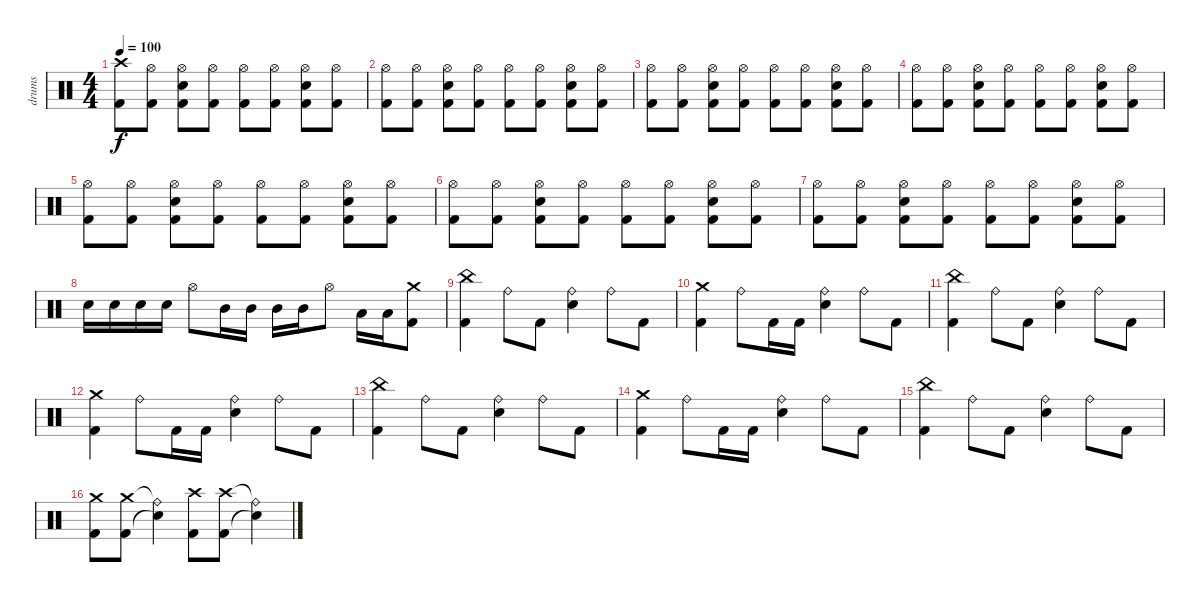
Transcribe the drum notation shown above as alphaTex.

\track ("drums" "drums") {instrument percussion}
\staff {score}
\articulation defaults
\ts (4 4)
\tempo 100
\clef neutral
\ks c
("Crash high (hit)" "Kick (hit) 2").8{dy f} ("Hi-Hat (open)" "Kick (hit) 2").8 ("Hi-Hat (open)" "Snare (hit) 2" "Kick (hit) 2").8 ("Hi-Hat (open)" "Kick (hit) 2").8 ("Hi-Hat (open)" "Kick (hit) 2").8 ("Hi-Hat (open)" "Kick (hit) 2").8 ("Hi-Hat (open)" "Snare (hit) 2" "Kick (hit) 2").8 ("Hi-Hat (open)" "Kick (hit) 2").8 |
("Hi-Hat (open)" "Kick (hit) 2").8 ("Hi-Hat (open)" "Kick (hit) 2").8 ("Hi-Hat (open)" "Snare (hit) 2" "Kick (hit) 2").8 ("Hi-Hat (open)" "Kick (hit) 2").8 ("Hi-Hat (open)" "Kick (hit) 2").8 ("Hi-Hat (open)" "Kick (hit) 2").8 ("Hi-Hat (open)" "Snare (hit) 2" "Kick (hit) 2").8 ("Hi-Hat (open)" "Kick (hit) 2").8 |
("Hi-Hat (open)" "Kick (hit) 2").8 ("Hi-Hat (open)" "Kick (hit) 2").8 ("Hi-Hat (open)" "Snare (hit) 2" "Kick (hit) 2").8 ("Hi-Hat (open)" "Kick (hit) 2").8 ("Hi-Hat (open)" "Kick (hit) 2").8 ("Hi-Hat (open)" "Kick (hit) 2").8 ("Hi-Hat (open)" "Snare (hit) 2" "Kick (hit) 2").8 ("Hi-Hat (open)" "Kick (hit) 2").8 |
("Hi-Hat (open)" "Kick (hit) 2").8 ("Hi-Hat (open)" "Kick (hit) 2").8 ("Hi-Hat (open)" "Snare (hit) 2" "Kick (hit) 2").8 ("Hi-Hat (open)" "Kick (hit) 2").8 ("Hi-Hat (open)" "Kick (hit) 2").8 ("Hi-Hat (open)" "Kick (hit) 2").8 ("Hi-Hat (open)" "Snare (hit) 2" "Kick (hit) 2").8 ("Hi-Hat (open)" "Kick (hit) 2").8 |
("Hi-Hat (open)" "Kick (hit) 2").8 ("Hi-Hat (open)" "Kick (hit) 2").8 ("Hi-Hat (open)" "Snare (hit) 2" "Kick (hit) 2").8 ("Hi-Hat (open)" "Kick (hit) 2").8 ("Hi-Hat (open)" "Kick (hit) 2").8 ("Hi-Hat (open)" "Kick (hit) 2").8 ("Hi-Hat (open)" "Snare (hit) 2" "Kick (hit) 2").8 ("Hi-Hat (open)" "Kick (hit) 2").8 |
("Hi-Hat (open)" "Kick (hit) 2").8 ("Hi-Hat (open)" "Kick (hit) 2").8 ("Hi-Hat (open)" "Snare (hit) 2" "Kick (hit) 2").8 ("Hi-Hat (open)" "Kick (hit) 2").8 ("Hi-Hat (open)" "Kick (hit) 2").8 ("Hi-Hat (open)" "Kick (hit) 2").8 ("Hi-Hat (open)" "Snare (hit) 2" "Kick (hit) 2").8 ("Hi-Hat (open)" "Kick (hit) 2").8 |
("Hi-Hat (open)" "Kick (hit) 2").8 ("Hi-Hat (open)" "Kick (hit) 2").8 ("Hi-Hat (open)" "Snare (hit) 2" "Kick (hit) 2").8 ("Hi-Hat (open)" "Kick (hit) 2").8 ("Hi-Hat (open)" "Kick (hit) 2").8 ("Hi-Hat (open)" "Kick (hit) 2").8 ("Hi-Hat (open)" "Snare (hit) 2" "Kick (hit) 2").8 ("Hi-Hat (open)" "Kick (hit) 2").8 |
"Snare (hit) 2".16 "Snare (hit) 2".16 "Snare (hit) 2".16 "Snare (hit) 2".16 "Hi-Hat (open)".8 "Mid Tom (hit)".16 "Mid Tom (hit)".16 "Mid Tom (hit)".16 "Mid Tom (hit)".16 "Hi-Hat (open)".8 "Low Tom (hit)".16 "Low Tom (hit)".16 ("Crash medium (hit)" "Kick (hit) 2").8 |
("China (hit)" "Kick (hit) 2").4 "Ride (bell)".8 "Kick (hit) 2".8 ("Ride (bell)" "Snare (hit) 2").4 "Ride (bell)".8 "Kick (hit) 2".8 |
("Crash medium (hit)" "Kick (hit) 2").4 "Ride (bell)".8 "Kick (hit) 2".16 "Kick (hit) 2".16 ("Ride (bell)" "Snare (hit) 2").4 "Ride (bell)".8 "Kick (hit) 2".8 |
("China (hit)" "Kick (hit) 2").4 "Ride (bell)".8 "Kick (hit) 2".8 ("Ride (bell)" "Snare (hit) 2").4 "Ride (bell)".8 "Kick (hit) 2".8 |
("Crash medium (hit)" "Kick (hit) 2").4 "Ride (bell)".8 "Kick (hit) 2".16 "Kick (hit) 2".16 ("Ride (bell)" "Snare (hit) 2").4 "Ride (bell)".8 "Kick (hit) 2".8 |
("China (hit)" "Kick (hit) 2").4 "Ride (bell)".8 "Kick (hit) 2".8 ("Ride (bell)" "Snare (hit) 2").4 "Ride (bell)".8 "Kick (hit) 2".8 |
("Crash medium (hit)" "Kick (hit) 2").4 "Ride (bell)".8 "Kick (hit) 2".16 "Kick (hit) 2".16 ("Ride (bell)" "Snare (hit) 2").4 "Ride (bell)".8 "Kick (hit) 2".8 |
("China (hit)" "Kick (hit) 2").4 "Ride (bell)".8 "Kick (hit) 2".8 ("Ride (bell)" "Snare (hit) 2").4 "Ride (bell)".8 "Kick (hit) 2".8 |
("Crash medium (hit)" "Kick (hit) 2").8 ("Crash medium (hit)" "Kick (hit) 2").8 ("Ride (bell)"{t} "Snare (hit)"{t}).4 ("Crash high (hit)" "Kick (hit) 2").8 ("Crash high (hit)" "Kick (hit) 2").8 ("Ride (bell)"{t} "Snare (hit)"{t}).4
